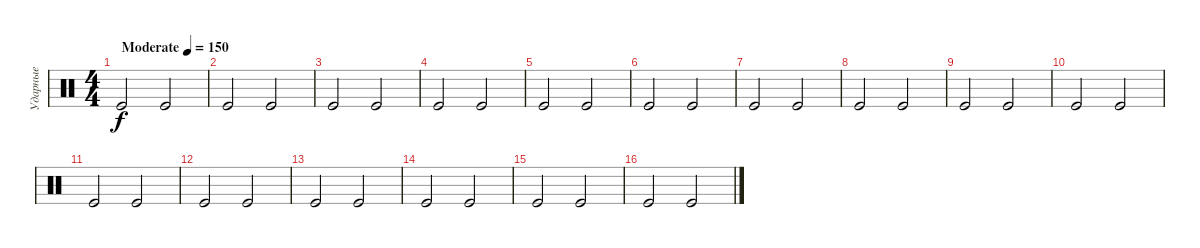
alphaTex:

\track ("Ударные" "Ударные") {instrument percussion}
\staff {score}
\articulation defaults
\ts (4 4)
\tempo (150 "Moderate")
\clef neutral
\ks c "Kick (hit)".2{dy f} "Kick (hit)".2
|
"Kick (hit)".2 "Kick (hit)".2 |
"Kick (hit)".2 "Kick (hit)".2 |
"Kick (hit)".2 "Kick (hit)".2 |
"Kick (hit)".2 "Kick (hit)".2 |
"Kick (hit)".2 "Kick (hit)".2 |
"Kick (hit)".2 "Kick (hit)".2 |
"Kick (hit)".2 "Kick (hit)".2 |
"Kick (hit)".2 "Kick (hit)".2 |
"Kick (hit)".2 "Kick (hit)".2 |
"Kick (hit)".2 "Kick (hit)".2 |
"Kick (hit)".2 "Kick (hit)".2 |
"Kick (hit)".2 "Kick (hit)".2 |
"Kick (hit)".2 "Kick (hit)".2 |
"Kick (hit)".2 "Kick (hit)".2 |
"Kick (hit)".2 "Kick (hit)".2
